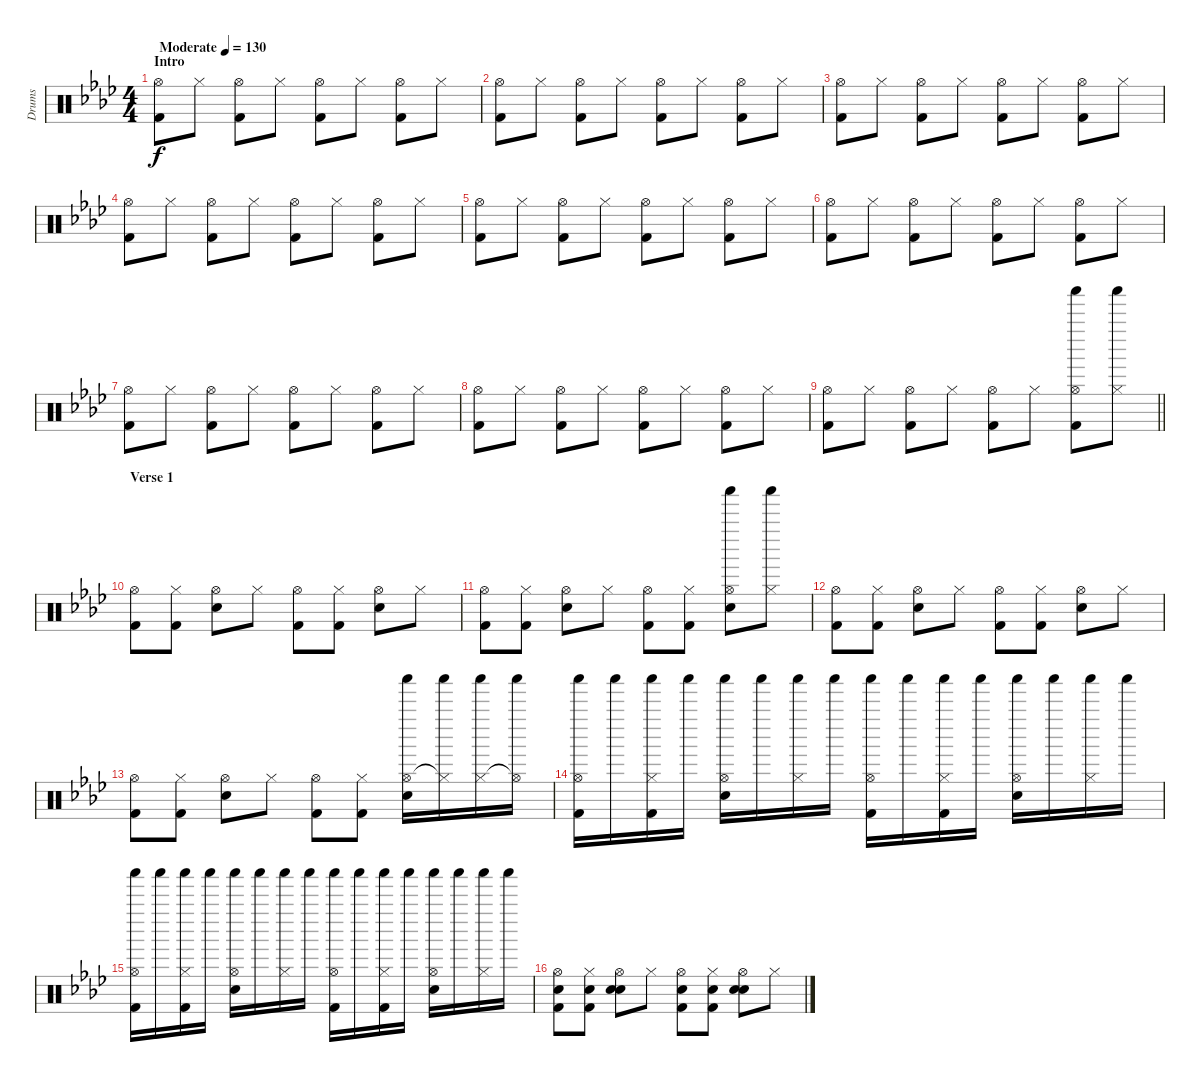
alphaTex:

\track ("Drums" "Drums") {instrument percussion}
\staff {score}
\articulation defaults
\ts (4 4)
\section ("" "Intro")
\tempo (130 "Moderate")
\clef neutral
\ks fminor
("Hi-Hat (open)" "Kick (hit) 2").8{dy f} "Hi-Hat (closed)".8 ("Hi-Hat (open)" "Kick (hit) 2").8 "Hi-Hat (closed)".8 ("Hi-Hat (open)" "Kick (hit) 2").8 "Hi-Hat (closed)".8 ("Hi-Hat (open)" "Kick (hit) 2").8 "Hi-Hat (closed)".8 |
("Hi-Hat (open)" "Kick (hit) 2").8 "Hi-Hat (closed)".8 ("Hi-Hat (open)" "Kick (hit) 2").8 "Hi-Hat (closed)".8 ("Hi-Hat (open)" "Kick (hit) 2").8 "Hi-Hat (closed)".8 ("Hi-Hat (open)" "Kick (hit) 2").8 "Hi-Hat (closed)".8 |
("Hi-Hat (open)" "Kick (hit) 2").8 "Hi-Hat (closed)".8 ("Hi-Hat (open)" "Kick (hit) 2").8 "Hi-Hat (closed)".8 ("Hi-Hat (open)" "Kick (hit) 2").8 "Hi-Hat (closed)".8 ("Hi-Hat (open)" "Kick (hit) 2").8 "Hi-Hat (closed)".8 |
("Hi-Hat (open)" "Kick (hit) 2").8 "Hi-Hat (closed)".8 ("Hi-Hat (open)" "Kick (hit) 2").8 "Hi-Hat (closed)".8 ("Hi-Hat (open)" "Kick (hit) 2").8 "Hi-Hat (closed)".8 ("Hi-Hat (open)" "Kick (hit) 2").8 "Hi-Hat (closed)".8 |
("Hi-Hat (open)" "Kick (hit) 2").8 "Hi-Hat (closed)".8 ("Hi-Hat (open)" "Kick (hit) 2").8 "Hi-Hat (closed)".8 ("Hi-Hat (open)" "Kick (hit) 2").8 "Hi-Hat (closed)".8 ("Hi-Hat (open)" "Kick (hit) 2").8 "Hi-Hat (closed)".8 |
("Hi-Hat (open)" "Kick (hit) 2").8 "Hi-Hat (closed)".8 ("Hi-Hat (open)" "Kick (hit) 2").8 "Hi-Hat (closed)".8 ("Hi-Hat (open)" "Kick (hit) 2").8 "Hi-Hat (closed)".8 ("Hi-Hat (open)" "Kick (hit) 2").8 "Hi-Hat (closed)".8 |
("Hi-Hat (open)" "Kick (hit) 2").8 "Hi-Hat (closed)".8 ("Hi-Hat (open)" "Kick (hit) 2").8 "Hi-Hat (closed)".8 ("Hi-Hat (open)" "Kick (hit) 2").8 "Hi-Hat (closed)".8 ("Hi-Hat (open)" "Kick (hit) 2").8 "Hi-Hat (closed)".8 |
("Hi-Hat (open)" "Kick (hit) 2").8 "Hi-Hat (closed)".8 ("Hi-Hat (open)" "Kick (hit) 2").8 "Hi-Hat (closed)".8 ("Hi-Hat (open)" "Kick (hit) 2").8 "Hi-Hat (closed)".8 ("Hi-Hat (open)" "Kick (hit) 2").8 "Hi-Hat (closed)".8 |
\barLineRight lightlight
("Hi-Hat (open)" "Kick (hit) 2").8 "Hi-Hat (closed)".8 ("Hi-Hat (open)" "Kick (hit) 2").8 "Hi-Hat (closed)".8 ("Hi-Hat (open)" "Kick (hit) 2").8 "Hi-Hat (closed)".8 ("Hi-Hat (open)" "Shaker (hit)" "Kick (hit) 2").8 ("Hi-Hat (closed)" "Shaker (hit)").8 |
\section ("" "Verse 1")
("Hi-Hat (open)" "Kick (hit) 2").8 ("Hi-Hat (closed)" "Kick (hit) 2").8 ("Hi-Hat (open)" "Electric Snare (hit)").8 "Hi-Hat (closed)".8 ("Hi-Hat (open)" "Kick (hit) 2").8 ("Hi-Hat (closed)" "Kick (hit) 2").8 ("Hi-Hat (open)" "Electric Snare (hit)").8 "Hi-Hat (closed)".8 |
("Hi-Hat (open)" "Kick (hit) 2").8 ("Hi-Hat (closed)" "Kick (hit) 2").8 ("Hi-Hat (open)" "Electric Snare (hit)").8 "Hi-Hat (closed)".8 ("Hi-Hat (open)" "Kick (hit) 2").8 ("Hi-Hat (closed)" "Kick (hit) 2").8 ("Hi-Hat (open)" "Shaker (hit)" "Electric Snare (hit)").8 ("Hi-Hat (closed)" "Shaker (hit)").8 |
("Hi-Hat (open)" "Kick (hit) 2").8 ("Hi-Hat (closed)" "Kick (hit) 2").8 ("Hi-Hat (open)" "Electric Snare (hit)").8 "Hi-Hat (closed)".8 ("Hi-Hat (open)" "Kick (hit) 2").8 ("Hi-Hat (closed)" "Kick (hit) 2").8 ("Hi-Hat (open)" "Electric Snare (hit)").8 "Hi-Hat (closed)".8 |
("Hi-Hat (open)" "Kick (hit) 2").8 ("Hi-Hat (closed)" "Kick (hit) 2").8 ("Hi-Hat (open)" "Electric Snare (hit)").8 "Hi-Hat (closed)".8 ("Hi-Hat (open)" "Kick (hit) 2").8 ("Hi-Hat (closed)" "Kick (hit) 2").8 ("Hi-Hat (open)" "Shaker (hit)" "Electric Snare (hit)").16 ("Hi-Hat (closed)"{t} "Shaker (hit)").16 ("Hi-Hat (closed)" "Shaker (hit)").16 ("Hi-Hat (open)"{t} "Shaker (hit)").16 |
("Shaker (hit)" "Hi-Hat (open)" "Kick (hit) 2").16 "Shaker (hit)".16 ("Shaker (hit)" "Hi-Hat (closed)" "Kick (hit) 2").16 "Shaker (hit)".16 ("Shaker (hit)" "Hi-Hat (open)" "Electric Snare (hit)").16 "Shaker (hit)".16 ("Shaker (hit)" "Hi-Hat (closed)").16 "Shaker (hit)".16 ("Shaker (hit)" "Hi-Hat (open)" "Kick (hit) 2").16 "Shaker (hit)".16 ("Shaker (hit)" "Hi-Hat (closed)" "Kick (hit) 2").16 "Shaker (hit)".16 ("Shaker (hit)" "Hi-Hat (open)" "Electric Snare (hit)").16 "Shaker (hit)".16 ("Shaker (hit)" "Hi-Hat (closed)").16 "Shaker (hit)".16 |
("Shaker (hit)" "Hi-Hat (open)" "Kick (hit) 2").16 "Shaker (hit)".16 ("Shaker (hit)" "Hi-Hat (closed)" "Kick (hit) 2").16 "Shaker (hit)".16 ("Shaker (hit)" "Hi-Hat (open)" "Electric Snare (hit)").16 "Shaker (hit)".16 ("Shaker (hit)" "Hi-Hat (closed)").16 "Shaker (hit)".16 ("Shaker (hit)" "Hi-Hat (open)" "Kick (hit) 2").16 "Shaker (hit)".16 ("Shaker (hit)" "Hi-Hat (closed)" "Kick (hit) 2").16 "Shaker (hit)".16 ("Shaker (hit)" "Hi-Hat (open)" "Electric Snare (hit)").16 "Shaker (hit)".16 ("Shaker (hit)" "Hi-Hat (closed)").16 "Shaker (hit)".16 |
("Hi-Hat (open)" "Hand Clap (hit)" "Kick (hit) 2").8 ("Hi-Hat (closed)" "Hand Clap (hit)" "Kick (hit) 2").8 ("Hi-Hat (open)" "Hand Clap (hit)" "Electric Snare (hit)").8 "Hi-Hat (closed)".8 ("Hi-Hat (open)" "Hand Clap (hit)" "Kick (hit) 2").8 ("Hi-Hat (closed)" "Hand Clap (hit)" "Kick (hit) 2").8 ("Hi-Hat (open)" "Hand Clap (hit)" "Electric Snare (hit)").8 "Hi-Hat (closed)".8
